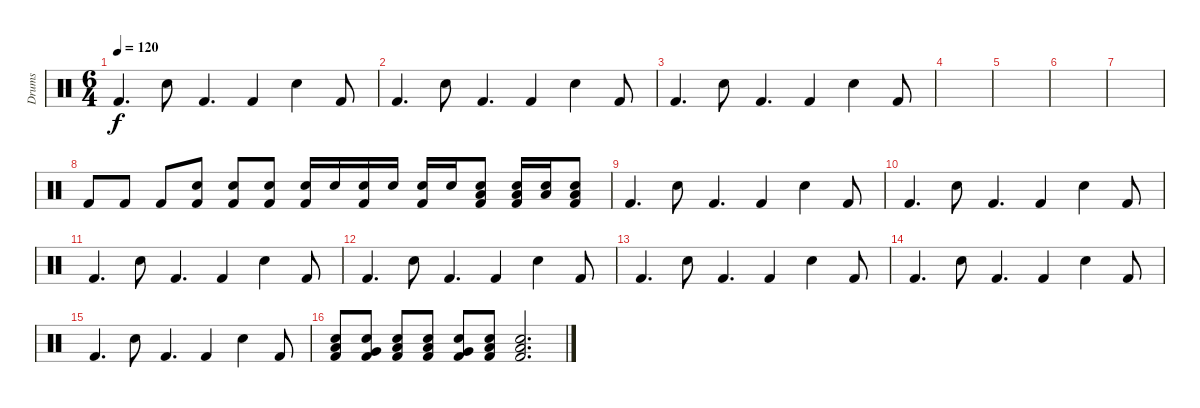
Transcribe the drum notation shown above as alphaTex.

\track ("Drums" "Drums") {instrument percussion}
\staff {score}
\articulation defaults
\ts (6 4)
\tempo 120
\clef neutral
\ks c "Kick (hit) 2".4{d dy f} "Snare (hit) 2".8 "Kick (hit) 2".4{d} "Kick (hit) 2".4 "Snare (hit) 2".4 "Kick (hit) 2".8
|
"Kick (hit) 2".4{d} "Snare (hit) 2".8 "Kick (hit) 2".4{d} "Kick (hit) 2".4 "Snare (hit) 2".4 "Kick (hit) 2".8 |
"Kick (hit) 2".4{d} "Snare (hit) 2".8 "Kick (hit) 2".4{d} "Kick (hit) 2".4 "Snare (hit) 2".4 "Kick (hit) 2".8 |
|
|
|
|
"Kick (hit) 2".8 "Kick (hit) 2".8 "Kick (hit) 2".8 ("Snare (hit) 2" "Kick (hit) 2").8 ("Snare (hit) 2" "Kick (hit) 2").8 ("Snare (hit) 2" "Kick (hit) 2").8 ("Snare (hit) 2" "Kick (hit) 2").16 "Snare (hit) 2".16 ("Snare (hit) 2" "Kick (hit) 2").16 "Snare (hit) 2".16 ("Snare (hit) 2" "Kick (hit) 2").16 "Snare (hit) 2".16 ("Low Tom (hit)" "Snare (hit) 2" "Kick (hit) 2").8 ("Low Tom (hit)" "Snare (hit) 2" "Kick (hit) 2").16 ("Low Tom (hit)" "Snare (hit) 2").16 ("Low Tom (hit)" "Snare (hit) 2" "Kick (hit) 2").8 |
"Kick (hit) 2".4{d} "Snare (hit) 2".8 "Kick (hit) 2".4{d} "Kick (hit) 2".4 "Snare (hit) 2".4 "Kick (hit) 2".8 |
"Kick (hit) 2".4{d} "Snare (hit) 2".8 "Kick (hit) 2".4{d} "Kick (hit) 2".4 "Snare (hit) 2".4 "Kick (hit) 2".8 |
"Kick (hit) 2".4{d} "Snare (hit) 2".8 "Kick (hit) 2".4{d} "Kick (hit) 2".4 "Snare (hit) 2".4 "Kick (hit) 2".8 |
"Kick (hit) 2".4{d} "Snare (hit) 2".8 "Kick (hit) 2".4{d} "Kick (hit) 2".4 "Snare (hit) 2".4 "Kick (hit) 2".8 |
"Kick (hit) 2".4{d} "Snare (hit) 2".8 "Kick (hit) 2".4{d} "Kick (hit) 2".4 "Snare (hit) 2".4 "Kick (hit) 2".8 |
"Kick (hit) 2".4{d} "Snare (hit) 2".8 "Kick (hit) 2".4{d} "Kick (hit) 2".4 "Snare (hit) 2".4 "Kick (hit) 2".8 |
"Kick (hit) 2".4{d} "Snare (hit) 2".8 "Kick (hit) 2".4{d} "Kick (hit) 2".4 "Snare (hit) 2".4 "Kick (hit) 2".8 |
("Low Tom (hit)" "Snare (hit) 2" "Kick (hit) 2").8 ("Very Low Tom (hit)" "Snare (hit) 2" "Kick (hit) 2").8 ("Low Floor Tom (hit)" "Snare (hit) 2" "Kick (hit) 2").8 ("Low Tom (hit)" "Snare (hit) 2" "Kick (hit) 2").8 ("Very Low Tom (hit)" "Snare (hit) 2" "Kick (hit) 2").8 ("Low Floor Tom (hit)" "Snare (hit) 2" "Kick (hit) 2").8 ("Low Tom (hit)" "Snare (hit) 2" "Kick (hit) 2").2{d}
